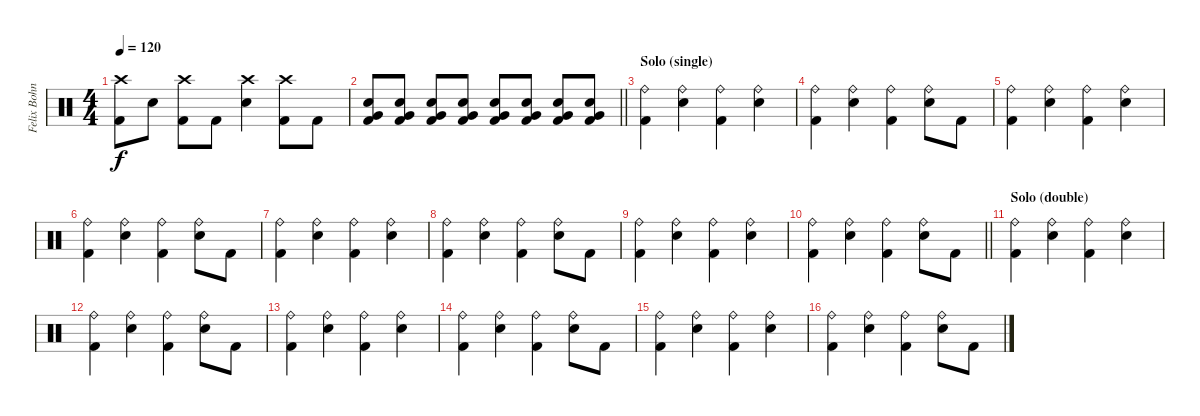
\track ("Felix Bohnke (Drums)" "Felix Bohn") {instrument percussion}
\staff {score}
\articulation defaults
\ts (4 4)
\tempo 120
\clef neutral
\ks c
("Crash high (hit)" "Kick (hit) 2").8{dy f} "Snare (hit) 2".8 ("Crash high (hit)" "Kick (hit) 2").8 "Kick (hit) 2".8 ("Crash high (hit)" "Snare (hit) 2").4 ("Crash high (hit)" "Kick (hit) 2").8 "Kick (hit) 2".8 |
\barLineRight lightlight
("Snare (hit) 2" "Very Low Tom (hit)" "Kick (hit) 2").8 ("Snare (hit) 2" "Very Low Tom (hit)" "Kick (hit) 2").8 ("Snare (hit) 2" "Very Low Tom (hit)" "Kick (hit) 2").8 ("Snare (hit) 2" "Very Low Tom (hit)" "Kick (hit) 2").8 ("Snare (hit) 2" "Very Low Tom (hit)" "Kick (hit) 2").8 ("Snare (hit) 2" "Very Low Tom (hit)" "Kick (hit) 2").8 ("Snare (hit) 2" "Very Low Tom (hit)" "Kick (hit) 2").8 ("Snare (hit) 2" "Very Low Tom (hit)" "Kick (hit) 2").8 |
\section ("" "Solo (single)")
("Ride (bell)" "Kick (hit) 2").4 ("Ride (bell)" "Snare (hit) 2").4 ("Ride (bell)" "Kick (hit) 2").4 ("Ride (bell)" "Snare (hit) 2").4 |
("Ride (bell)" "Kick (hit) 2").4 ("Ride (bell)" "Snare (hit) 2").4 ("Ride (bell)" "Kick (hit) 2").4 ("Ride (bell)" "Snare (hit) 2").8 "Kick (hit) 2".8 |
("Ride (bell)" "Kick (hit) 2").4 ("Ride (bell)" "Snare (hit) 2").4 ("Ride (bell)" "Kick (hit) 2").4 ("Ride (bell)" "Snare (hit) 2").4 |
("Ride (bell)" "Kick (hit) 2").4 ("Ride (bell)" "Snare (hit) 2").4 ("Ride (bell)" "Kick (hit) 2").4 ("Ride (bell)" "Snare (hit) 2").8 "Kick (hit) 2".8 |
("Ride (bell)" "Kick (hit) 2").4 ("Ride (bell)" "Snare (hit) 2").4 ("Ride (bell)" "Kick (hit) 2").4 ("Ride (bell)" "Snare (hit) 2").4 |
("Ride (bell)" "Kick (hit) 2").4 ("Ride (bell)" "Snare (hit) 2").4 ("Ride (bell)" "Kick (hit) 2").4 ("Ride (bell)" "Snare (hit) 2").8 "Kick (hit) 2".8 |
("Ride (bell)" "Kick (hit) 2").4 ("Ride (bell)" "Snare (hit) 2").4 ("Ride (bell)" "Kick (hit) 2").4 ("Ride (bell)" "Snare (hit) 2").4 |
\barLineRight lightlight
("Ride (bell)" "Kick (hit) 2").4 ("Ride (bell)" "Snare (hit) 2").4 ("Ride (bell)" "Kick (hit) 2").4 ("Ride (bell)" "Snare (hit) 2").8 "Kick (hit) 2".8 |
\section ("" "Solo (double)")
("Ride (bell)" "Kick (hit) 2").4 ("Ride (bell)" "Snare (hit) 2").4 ("Ride (bell)" "Kick (hit) 2").4 ("Ride (bell)" "Snare (hit) 2").4 |
("Ride (bell)" "Kick (hit) 2").4 ("Ride (bell)" "Snare (hit) 2").4 ("Ride (bell)" "Kick (hit) 2").4 ("Ride (bell)" "Snare (hit) 2").8 "Kick (hit) 2".8 |
("Ride (bell)" "Kick (hit) 2").4 ("Ride (bell)" "Snare (hit) 2").4 ("Ride (bell)" "Kick (hit) 2").4 ("Ride (bell)" "Snare (hit) 2").4 |
("Ride (bell)" "Kick (hit) 2").4 ("Ride (bell)" "Snare (hit) 2").4 ("Ride (bell)" "Kick (hit) 2").4 ("Ride (bell)" "Snare (hit) 2").8 "Kick (hit) 2".8 |
("Ride (bell)" "Kick (hit) 2").4 ("Ride (bell)" "Snare (hit) 2").4 ("Ride (bell)" "Kick (hit) 2").4 ("Ride (bell)" "Snare (hit) 2").4 |
("Ride (bell)" "Kick (hit) 2").4 ("Ride (bell)" "Snare (hit) 2").4 ("Ride (bell)" "Kick (hit) 2").4 ("Ride (bell)" "Snare (hit) 2").8 "Kick (hit) 2".8
